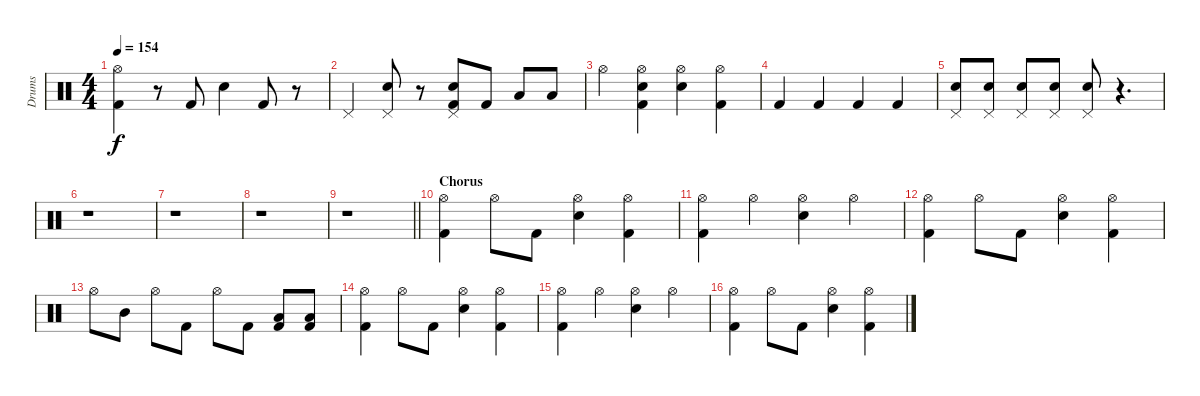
\track ("Drums" "Drums") {instrument percussion}
\staff {score}
\articulation defaults
\ts (4 4)
\tempo 154
\clef neutral
\ks c
("Hi-Hat (open)" "Kick (hit) 2").4{dy f} r.8 "Kick (hit) 2".8 "Snare (hit) 2".4 "Kick (hit) 2".8 r.8 |
"Pedal Hi-Hat (hit)".4 ("Pedal Hi-Hat (hit)" "Snare (hit) 2").8 r.8 ("Pedal Hi-Hat (hit)" "Kick (hit) 2" "Snare (hit) 2").8 "Kick (hit) 2".8 "Low Floor Tom (hit)".8 "Low Floor Tom (hit)".8 |
"Hi-Hat (open)".4 ("Hi-Hat (open)" "Snare (hit) 2" "Kick (hit) 2").4 ("Hi-Hat (open)" "Snare (hit) 2").4 ("Hi-Hat (open)" "Kick (hit) 2").4 |
"Kick (hit) 2".4 "Kick (hit) 2".4 "Kick (hit) 2".4 "Kick (hit) 2".4 |
("Pedal Hi-Hat (hit)" "Snare (hit) 2").8 ("Pedal Hi-Hat (hit)" "Snare (hit) 2").8 ("Pedal Hi-Hat (hit)" "Snare (hit) 2").8 ("Pedal Hi-Hat (hit)" "Snare (hit) 2").8 ("Pedal Hi-Hat (hit)" "Snare (hit) 2").8 r.4{d} |
r.1 |
r.1 |
r.1 |
\barLineRight lightlight
r.1 |
\section ("" "Chorus")
("Hi-Hat (open)" "Kick (hit) 2").4 "Hi-Hat (open)".8 "Kick (hit) 2".8 ("Hi-Hat (open)" "Snare (hit) 2").4 ("Hi-Hat (open)" "Kick (hit) 2").4 |
("Hi-Hat (open)" "Kick (hit) 2").4 "Hi-Hat (open)".4 ("Hi-Hat (open)" "Snare (hit) 2").4 "Hi-Hat (open)".4 |
("Hi-Hat (open)" "Kick (hit) 2").4 "Hi-Hat (open)".8 "Kick (hit) 2".8 ("Hi-Hat (open)" "Snare (hit) 2").4 ("Hi-Hat (open)" "Kick (hit) 2").4 |
"Hi-Hat (open)".8 "Mid Tom (hit)".8 "Hi-Hat (open)".8 "Kick (hit) 2".8 "Hi-Hat (open)".8 "Kick (hit) 2".8 ("Low Floor Tom (hit)" "Kick (hit) 2").8 ("Low Floor Tom (hit)" "Kick (hit) 2").8 |
("Hi-Hat (open)" "Kick (hit) 2").4 "Hi-Hat (open)".8 "Kick (hit) 2".8 ("Hi-Hat (open)" "Snare (hit) 2").4 ("Hi-Hat (open)" "Kick (hit) 2").4 |
("Hi-Hat (open)" "Kick (hit) 2").4 "Hi-Hat (open)".4 ("Hi-Hat (open)" "Snare (hit) 2").4 "Hi-Hat (open)".4 |
("Hi-Hat (open)" "Kick (hit) 2").4 "Hi-Hat (open)".8 "Kick (hit) 2".8 ("Hi-Hat (open)" "Snare (hit) 2").4 ("Hi-Hat (open)" "Kick (hit) 2").4
